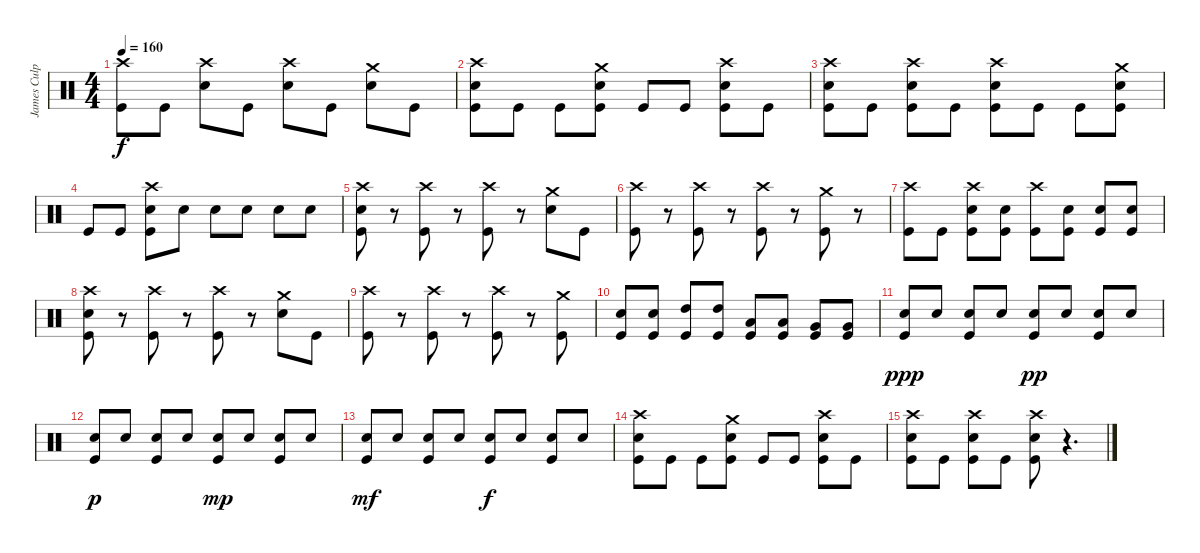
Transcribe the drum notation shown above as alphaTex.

\track ("James Culpepper - drums" "James Culp") {instrument percussion}
\staff {score}
\articulation defaults
\ts (4 4)
\tempo 160
\clef neutral
\ks c
("Crash high (hit)" "Kick (hit)").8{dy f} "Kick (hit)".8 ("Crash high (hit)" "Snare (hit) 2").8 "Kick (hit)".8 ("Crash high (hit)" "Snare (hit) 2").8 "Kick (hit)".8 ("Crash medium (hit)" "Snare (hit) 2").8 "Kick (hit)".8 |
("Crash high (hit)" "Snare (hit) 2" "Kick (hit)").8 "Kick (hit)".8 "Kick (hit)".8 ("Crash medium (hit)" "Snare (hit) 2" "Kick (hit)").8 "Kick (hit)".8 "Kick (hit)".8 ("Crash high (hit)" "Snare (hit) 2" "Kick (hit)").8 "Kick (hit)".8 |
("Crash high (hit)" "Snare (hit) 2" "Kick (hit)").8 "Kick (hit)".8 ("Crash high (hit)" "Snare (hit) 2" "Kick (hit)").8 "Kick (hit)".8 ("Crash high (hit)" "Snare (hit) 2" "Kick (hit)").8 "Kick (hit)".8 "Kick (hit)".8 ("Crash medium (hit)" "Snare (hit) 2" "Kick (hit)").8 |
"Kick (hit)".8 "Kick (hit)".8 ("Crash high (hit)" "Snare (hit) 2" "Kick (hit)").8 "Snare (hit) 2".8 "Snare (hit) 2".8 "Snare (hit) 2".8 "Snare (hit) 2".8 "Snare (hit) 2".8 |
("Crash high (hit)" "Snare (hit) 2" "Kick (hit)").8 r.8 ("Crash high (hit)" "Kick (hit)").8 r.8 ("Crash high (hit)" "Kick (hit)").8 r.8 ("Crash medium (hit)" "Snare (hit) 2").8 "Kick (hit)".8 |
("Crash high (hit)" "Kick (hit)").8 r.8 ("Crash high (hit)" "Kick (hit)").8 r.8 ("Crash high (hit)" "Kick (hit)").8 r.8 ("Crash medium (hit)" "Kick (hit)").8 r.8 |
("Crash high (hit)" "Kick (hit)").8 "Kick (hit)".8 ("Crash high (hit)" "Snare (hit) 2" "Kick (hit)").8 ("Snare (hit) 2" "Kick (hit)").8 ("Crash high (hit)" "Kick (hit)").8 ("Snare (hit) 2" "Kick (hit)").8 ("Snare (hit) 2" "Kick (hit)").8 ("Snare (hit) 2" "Kick (hit)").8 |
("Crash high (hit)" "Snare (hit) 2" "Kick (hit)").8 r.8 ("Crash high (hit)" "Kick (hit)").8 r.8 ("Crash high (hit)" "Kick (hit)").8 r.8 ("Crash medium (hit)" "Snare (hit) 2").8 "Kick (hit)".8 |
("Crash high (hit)" "Kick (hit)").8 r.8 ("Crash high (hit)" "Kick (hit)").8 r.8 ("Crash high (hit)" "Kick (hit)").8 r.8 ("Crash medium (hit)" "Kick (hit)").8 |
("Snare (hit) 2" "Kick (hit)").8 ("Snare (hit) 2" "Kick (hit)").8 ("High Tom (hit)" "Kick (hit)").8 ("High Tom (hit)" "Kick (hit)").8 ("Low Tom (hit)" "Kick (hit)").8 ("Low Tom (hit)" "Kick (hit)").8 ("Very Low Tom (hit)" "Kick (hit)").8 ("Very Low Tom (hit)" "Kick (hit)").8 |
("Snare (hit) 2" "Kick (hit)").8{dy ppp} "Snare (hit) 2".8 ("Snare (hit) 2" "Kick (hit)").8 "Snare (hit) 2".8 ("Snare (hit) 2" "Kick (hit)").8{dy pp} "Snare (hit) 2".8 ("Snare (hit) 2" "Kick (hit)").8 "Snare (hit) 2".8 |
("Snare (hit) 2" "Kick (hit)").8{dy p} "Snare (hit) 2".8 ("Snare (hit) 2" "Kick (hit)").8 "Snare (hit) 2".8 ("Snare (hit) 2" "Kick (hit)").8{dy mp} "Snare (hit) 2".8 ("Snare (hit) 2" "Kick (hit)").8 "Snare (hit) 2".8 |
("Snare (hit) 2" "Kick (hit)").8{dy mf} "Snare (hit) 2".8 ("Snare (hit) 2" "Kick (hit)").8 "Snare (hit) 2".8 ("Snare (hit) 2" "Kick (hit)").8{dy f} "Snare (hit) 2".8 ("Snare (hit) 2" "Kick (hit)").8 "Snare (hit) 2".8 |
("Crash high (hit)" "Snare (hit) 2" "Kick (hit)").8 "Kick (hit)".8 "Kick (hit)".8 ("Crash medium (hit)" "Snare (hit) 2" "Kick (hit)").8 "Kick (hit)".8 "Kick (hit)".8 ("Crash high (hit)" "Snare (hit) 2" "Kick (hit)").8 "Kick (hit)".8 |
("Crash high (hit)" "Snare (hit) 2" "Kick (hit)").8 "Kick (hit)".8 ("Crash high (hit)" "Snare (hit) 2" "Kick (hit)").8 "Kick (hit)".8 ("Crash high (hit)" "Snare (hit) 2" "Kick (hit)").8 r.4{d}
